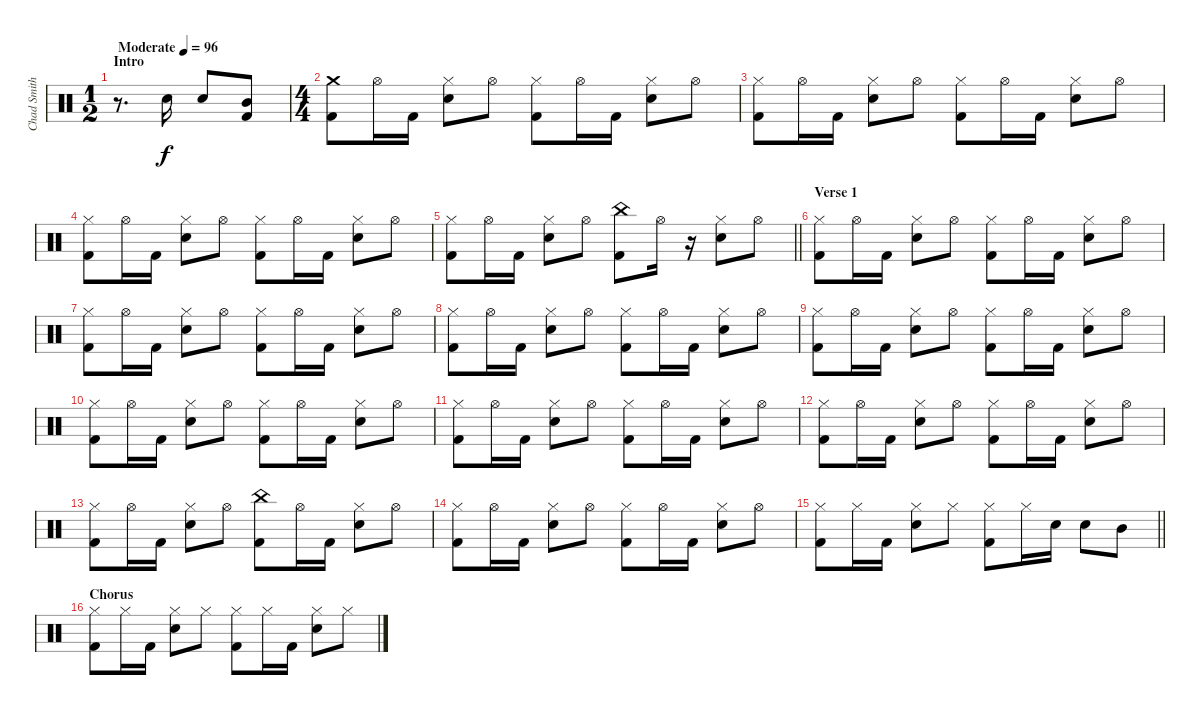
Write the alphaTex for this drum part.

\track ("Chad Smith (Drums)" "Chad Smith") {instrument percussion}
\staff {score}
\articulation defaults
\ts (1 2)
\section ("" "Intro")
\tempo (96 "Moderate")
\clef neutral
\ks c
r.8{d dy f} "Electric Snare (hit)".16 "Electric Snare (hit)".8 ("Mid Tom (hit)" "Kick (hit) 2").8 |
\ts (4 4)
("Crash medium (hit)" "Kick (hit) 2").8 "Hi-Hat (open)".16 "Kick (hit) 2".16 ("Hi-Hat (closed)" "Electric Snare (hit)").8 "Hi-Hat (open)".8 ("Hi-Hat (closed)" "Kick (hit) 2").8 "Hi-Hat (open)".16 "Kick (hit) 2".16 ("Hi-Hat (closed)" "Electric Snare (hit)").8 "Hi-Hat (open)".8 |
("Hi-Hat (closed)" "Kick (hit) 2").8 "Hi-Hat (open)".16 "Kick (hit) 2".16 ("Hi-Hat (closed)" "Electric Snare (hit)").8 "Hi-Hat (open)".8 ("Hi-Hat (closed)" "Kick (hit) 2").8 "Hi-Hat (open)".16 "Kick (hit) 2".16 ("Hi-Hat (closed)" "Electric Snare (hit)").8 "Hi-Hat (open)".8 |
("Hi-Hat (closed)" "Kick (hit) 2").8 "Hi-Hat (open)".16 "Kick (hit) 2".16 ("Hi-Hat (closed)" "Electric Snare (hit)").8 "Hi-Hat (open)".8 ("Hi-Hat (closed)" "Kick (hit) 2").8 "Hi-Hat (open)".16 "Kick (hit) 2".16 ("Hi-Hat (closed)" "Electric Snare (hit)").8 "Hi-Hat (open)".8 |
\barLineRight lightlight
("Hi-Hat (closed)" "Kick (hit) 2").8 "Hi-Hat (open)".16 "Kick (hit) 2".16 ("Hi-Hat (closed)" "Electric Snare (hit)").8 "Hi-Hat (open)".8 ("China (hit)" "Kick (hit) 2").8 "Hi-Hat (open)".16 r.16 ("Hi-Hat (closed)" "Electric Snare (hit)").8 "Hi-Hat (open)".8 |
\section ("" "Verse 1")
("Hi-Hat (closed)" "Kick (hit) 2").8 "Hi-Hat (open)".16 "Kick (hit) 2".16 ("Hi-Hat (closed)" "Electric Snare (hit)").8 "Hi-Hat (open)".8 ("Hi-Hat (closed)" "Kick (hit) 2").8 "Hi-Hat (open)".16 "Kick (hit) 2".16 ("Hi-Hat (closed)" "Electric Snare (hit)").8 "Hi-Hat (open)".8 |
("Hi-Hat (closed)" "Kick (hit) 2").8 "Hi-Hat (open)".16 "Kick (hit) 2".16 ("Hi-Hat (closed)" "Electric Snare (hit)").8 "Hi-Hat (open)".8 ("Hi-Hat (closed)" "Kick (hit) 2").8 "Hi-Hat (open)".16 "Kick (hit) 2".16 ("Hi-Hat (closed)" "Electric Snare (hit)").8 "Hi-Hat (open)".8 |
("Hi-Hat (closed)" "Kick (hit) 2").8 "Hi-Hat (open)".16 "Kick (hit) 2".16 ("Hi-Hat (closed)" "Electric Snare (hit)").8 "Hi-Hat (open)".8 ("Hi-Hat (closed)" "Kick (hit) 2").8 "Hi-Hat (open)".16 "Kick (hit) 2".16 ("Hi-Hat (closed)" "Electric Snare (hit)").8 "Hi-Hat (open)".8 |
("Hi-Hat (closed)" "Kick (hit) 2").8 "Hi-Hat (open)".16 "Kick (hit) 2".16 ("Hi-Hat (closed)" "Electric Snare (hit)").8 "Hi-Hat (open)".8 ("Hi-Hat (closed)" "Kick (hit) 2").8 "Hi-Hat (open)".16 "Kick (hit) 2".16 ("Hi-Hat (closed)" "Electric Snare (hit)").8 "Hi-Hat (open)".8 |
("Hi-Hat (closed)" "Kick (hit) 2").8 "Hi-Hat (open)".16 "Kick (hit) 2".16 ("Hi-Hat (closed)" "Electric Snare (hit)").8 "Hi-Hat (open)".8 ("Hi-Hat (closed)" "Kick (hit) 2").8 "Hi-Hat (open)".16 "Kick (hit) 2".16 ("Hi-Hat (closed)" "Electric Snare (hit)").8 "Hi-Hat (open)".8 |
("Hi-Hat (closed)" "Kick (hit) 2").8 "Hi-Hat (open)".16 "Kick (hit) 2".16 ("Hi-Hat (closed)" "Electric Snare (hit)").8 "Hi-Hat (open)".8 ("Hi-Hat (closed)" "Kick (hit) 2").8 "Hi-Hat (open)".16 "Kick (hit) 2".16 ("Hi-Hat (closed)" "Electric Snare (hit)").8 "Hi-Hat (open)".8 |
("Hi-Hat (closed)" "Kick (hit) 2").8 "Hi-Hat (open)".16 "Kick (hit) 2".16 ("Hi-Hat (closed)" "Electric Snare (hit)").8 "Hi-Hat (open)".8 ("Hi-Hat (closed)" "Kick (hit) 2").8 "Hi-Hat (open)".16 "Kick (hit) 2".16 ("Hi-Hat (closed)" "Electric Snare (hit)").8 "Hi-Hat (open)".8 |
("Hi-Hat (closed)" "Kick (hit) 2").8 "Hi-Hat (open)".16 "Kick (hit) 2".16 ("Hi-Hat (closed)" "Electric Snare (hit)").8 "Hi-Hat (open)".8 ("China (hit)" "Kick (hit) 2").8 "Hi-Hat (open)".16 "Kick (hit) 2".16 ("Hi-Hat (closed)" "Electric Snare (hit)").8 "Hi-Hat (open)".8 |
("Hi-Hat (closed)" "Kick (hit) 2").8 "Hi-Hat (open)".16 "Kick (hit) 2".16 ("Hi-Hat (closed)" "Electric Snare (hit)").8 "Hi-Hat (open)".8 ("Hi-Hat (closed)" "Kick (hit) 2").8 "Hi-Hat (open)".16 "Kick (hit) 2".16 ("Hi-Hat (closed)" "Electric Snare (hit)").8 "Hi-Hat (open)".8 |
\barLineRight lightlight
("Hi-Hat (closed)" "Kick (hit) 2").8 "Hi-Hat (closed)".16 "Kick (hit) 2".16 ("Hi-Hat (closed)" "Electric Snare (hit)").8 "Hi-Hat (closed)".8 ("Hi-Hat (closed)" "Kick (hit) 2").8 "Hi-Hat (closed)".16 "Electric Snare (hit)".16 "Electric Snare (hit)".8 "Mid Tom (hit)".8 |
\section ("" "Chorus")
("Hi-Hat (closed)" "Kick (hit) 2").8 "Hi-Hat (closed)".16 "Kick (hit) 2".16 ("Hi-Hat (closed)" "Electric Snare (hit)").8 "Hi-Hat (closed)".8 ("Hi-Hat (closed)" "Kick (hit) 2").8 "Hi-Hat (closed)".16 "Kick (hit) 2".16 ("Hi-Hat (closed)" "Electric Snare (hit)").8 "Hi-Hat (closed)".8
